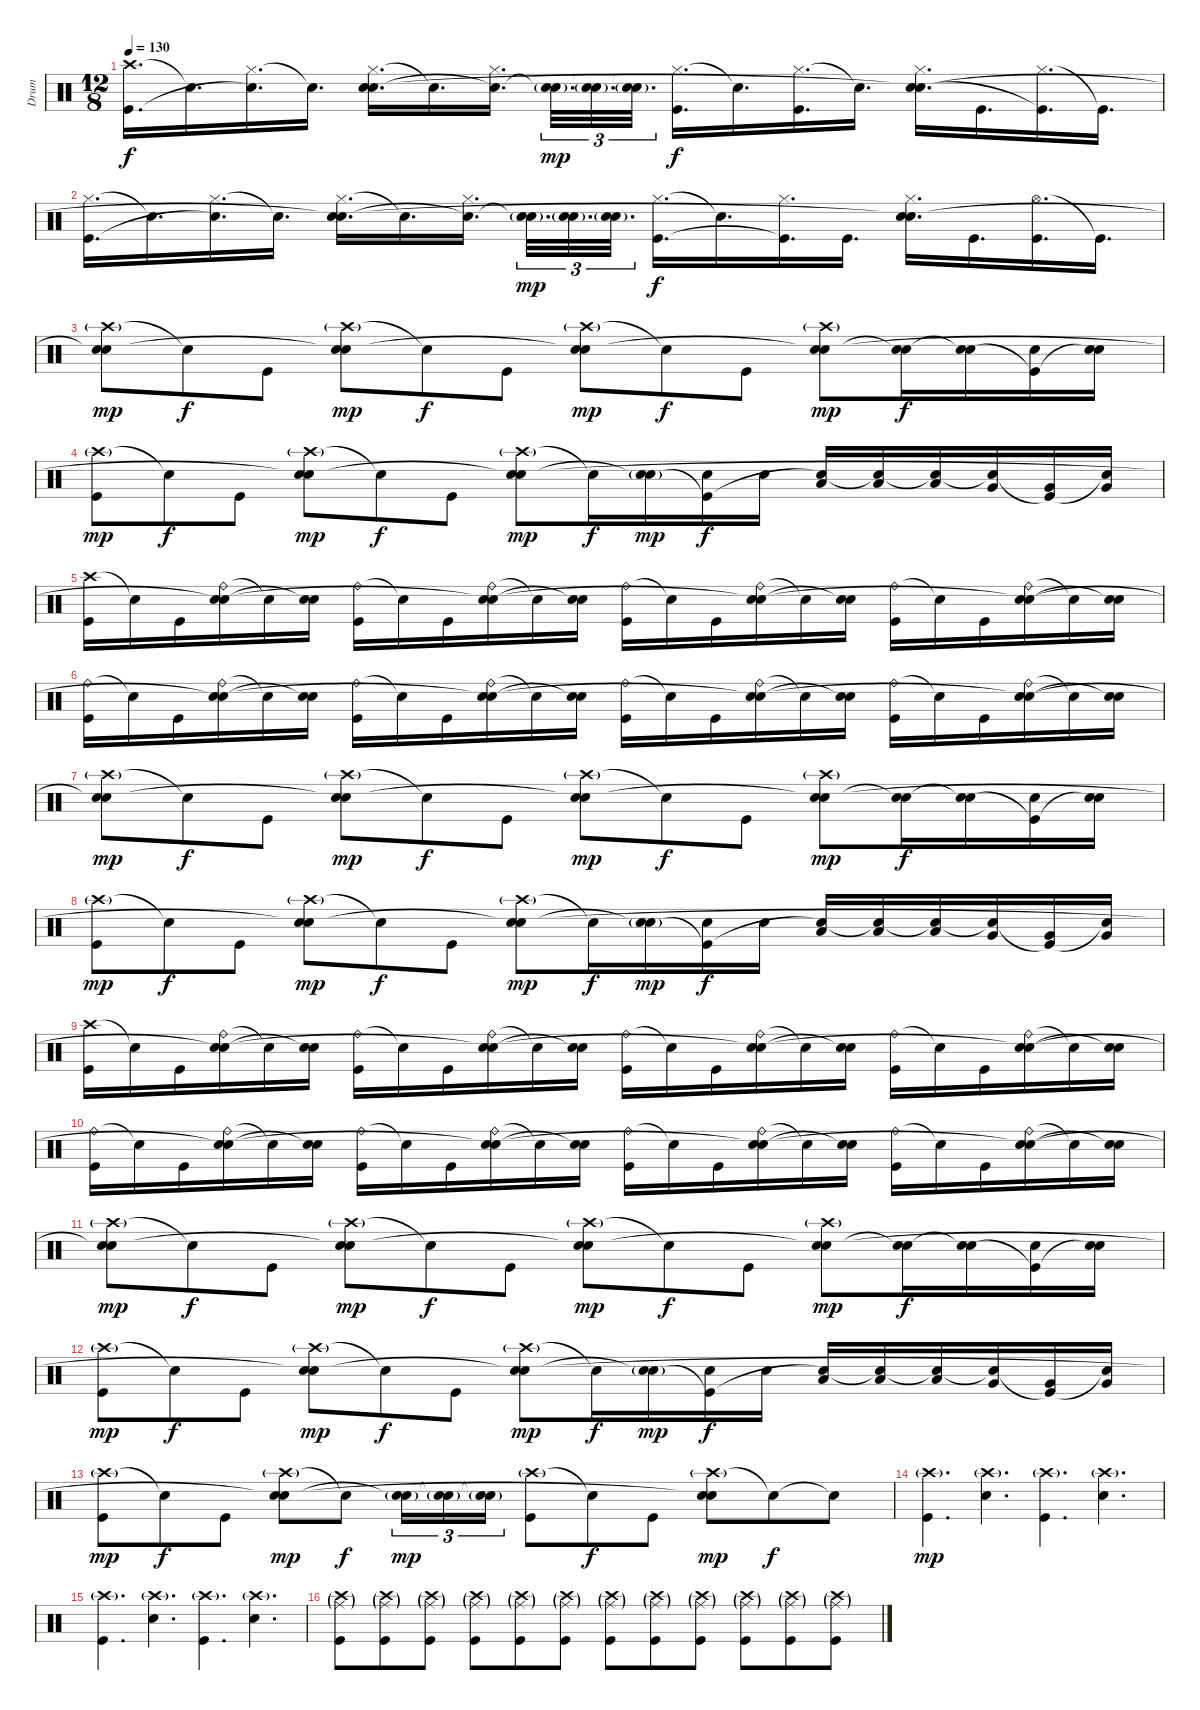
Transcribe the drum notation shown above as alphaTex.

\track ("Drum" "Drum") {instrument percussion}
\staff {score}
\articulation defaults
\ts (12 8)
\tempo 130
\clef neutral
\ks c
("Crash high (hit)" "Kick (hit)").16{d dy f} "Snare (hit)"{t}.16{d} ("Hi-Hat (closed)" "Snare (hit)"{t}).16{d} "Snare (hit)"{t}.16{d} ("Hi-Hat (closed)" "Electric Snare (hit)" "Snare (hit)"{t}).16{d} "Snare (hit)"{t}.16{d} ("Hi-Hat (closed)" "Snare (hit)"{t}).16{d beam splitsecondary} ("Electric Snare (hit)"{g} "Snare (hit)"{t}).32{d tu (3 2) dy mp} ("Electric Snare (hit)"{g} "Snare (hit)"{t}).32{d tu (3 2)} ("Electric Snare (hit)"{g} "Snare (hit)"{t}).32{d tu (3 2)} ("Hi-Hat (closed)" "Kick (hit)").16{d dy f} "Snare (hit)"{t}.16{d} ("Hi-Hat (closed)" "Kick (hit)").16{d} "Snare (hit)"{t}.16{d} ("Hi-Hat (closed)" "Electric Snare (hit)" "Snare (hit)"{t}).16{d} "Kick (hit)".16{d} ("Hi-Hat (closed)" "Kick (hit)"{t}).16{d} "Kick (hit)"{t}.16{d} |
("Hi-Hat (closed)" "Kick (hit)").16{d} "Snare (hit)"{t}.16{d} ("Hi-Hat (closed)" "Snare (hit)"{t}).16{d} "Snare (hit)"{t}.16{d} ("Hi-Hat (closed)" "Electric Snare (hit)" "Snare (hit)"{t}).16{d} "Snare (hit)"{t}.16{d} ("Hi-Hat (closed)" "Snare (hit)"{t}).16{d beam splitsecondary} ("Electric Snare (hit)"{g} "Snare (hit)"{t}).32{d tu (3 2) dy mp} ("Electric Snare (hit)"{g} "Snare (hit)"{t}).32{d tu (3 2)} ("Electric Snare (hit)"{g} "Snare (hit)"{t}).32{d tu (3 2)} ("Hi-Hat (closed)" "Kick (hit)").16{d dy f} "Snare (hit)"{t}.16{d} ("Hi-Hat (closed)" "Kick (hit)"{t}).16{d} "Kick (hit)".16{d} ("Hi-Hat (closed)" "Electric Snare (hit)" "Snare (hit)"{t}).16{d} "Kick (hit)".16{d} ("Hi-Hat (open)" "Kick (hit)").16{d} "Kick (hit)"{t}.16{d} |
("Crash high (hit)"{g} "Electric Snare (hit)" "Snare (hit)"{t}).8{dy mp} "Snare (hit)"{t}.8{dy f} "Kick (hit)".8 ("Crash high (hit)"{g} "Electric Snare (hit)" "Snare (hit)"{t}).8{dy mp} "Snare (hit)"{t}.8{dy f} "Kick (hit)".8 ("Crash high (hit)"{g} "Electric Snare (hit)" "Snare (hit)"{t}).8{dy mp} "Snare (hit)"{t}.8{dy f} "Kick (hit)".8 ("Crash high (hit)"{g} "Electric Snare (hit)" "Snare (hit)"{t}).8{dy mp} ("Electric Snare (hit)" "Snare (hit)"{t}).16{dy f} ("Electric Snare (hit)" "Snare (hit)"{t}).16 ("Electric Snare (hit)" "Kick (hit)"{t}).16 ("Electric Snare (hit)" "Snare (hit)"{t}).16 |
("Crash high (hit)"{g} "Kick (hit)").8{dy mp} "Snare (hit)"{t}.8{dy f} "Kick (hit)".8 ("Crash high (hit)"{g} "Electric Snare (hit)" "Snare (hit)"{t}).8{dy mp} "Snare (hit)"{t}.8{dy f} "Kick (hit)".8 ("Crash high (hit)"{g} "Electric Snare (hit)" "Snare (hit)"{t}).8{dy mp} "Snare (hit)"{t}.16{dy f} ("Electric Snare (hit)"{g} "Snare (hit)"{t}).16{dy mp} ("Electric Snare (hit)" "Kick (hit)"{t}).16{dy f} "Electric Snare (hit)".16 ("Low Tom (hit)" "Snare (hit)"{t}).16 ("Low Tom (hit)" "Snare (hit)"{t}).16 ("Low Tom (hit)" "Snare (hit)"{t}).16 ("Very Low Tom (hit)" "Snare (hit)"{t}).16 ("Very Low Tom (hit)" "Kick (hit)"{t}).16 ("Very Low Tom (hit)" "Snare (hit)"{t}).16 |
("Crash high (hit)" "Kick (hit)").16 "Snare (hit)"{t}.16 "Kick (hit)".16 ("Ride (bell)" "Electric Snare (hit)" "Snare (hit)"{t}).16 "Snare (hit)"{t}.16 ("Electric Snare (hit)" "Snare (hit)"{t}).16 ("Ride (bell)" "Kick (hit)").16 "Snare (hit)"{t}.16 "Kick (hit)".16 ("Ride (bell)" "Electric Snare (hit)" "Snare (hit)"{t}).16 "Snare (hit)"{t}.16 ("Electric Snare (hit)" "Snare (hit)"{t}).16 ("Ride (bell)" "Kick (hit)").16 "Snare (hit)"{t}.16 "Kick (hit)".16 ("Ride (bell)" "Electric Snare (hit)" "Snare (hit)"{t}).16 "Snare (hit)"{t}.16 ("Electric Snare (hit)" "Snare (hit)"{t}).16 ("Ride (bell)" "Kick (hit)").16 "Snare (hit)"{t}.16 "Kick (hit)".16 ("Ride (bell)" "Electric Snare (hit)" "Snare (hit)"{t}).16 "Snare (hit)"{t}.16 ("Electric Snare (hit)" "Snare (hit)"{t}).16 |
("Ride (bell)" "Kick (hit)").16 "Snare (hit)"{t}.16 "Kick (hit)".16 ("Ride (bell)" "Electric Snare (hit)" "Snare (hit)"{t}).16 "Snare (hit)"{t}.16 ("Electric Snare (hit)" "Snare (hit)"{t}).16 ("Ride (bell)" "Kick (hit)").16 "Snare (hit)"{t}.16 "Kick (hit)".16 ("Ride (bell)" "Electric Snare (hit)" "Snare (hit)"{t}).16 "Snare (hit)"{t}.16 ("Electric Snare (hit)" "Snare (hit)"{t}).16 ("Ride (bell)" "Kick (hit)").16 "Snare (hit)"{t}.16 "Kick (hit)".16 ("Ride (bell)" "Electric Snare (hit)" "Snare (hit)"{t}).16 "Snare (hit)"{t}.16 ("Electric Snare (hit)" "Snare (hit)"{t}).16 ("Ride (bell)" "Kick (hit)").16 "Snare (hit)"{t}.16 "Kick (hit)".16 ("Ride (bell)" "Electric Snare (hit)" "Snare (hit)"{t}).16 "Snare (hit)"{t}.16 ("Electric Snare (hit)" "Snare (hit)"{t}).16 |
("Crash high (hit)"{g} "Electric Snare (hit)" "Snare (hit)"{t}).8{dy mp} "Snare (hit)"{t}.8{dy f} "Kick (hit)".8 ("Crash high (hit)"{g} "Electric Snare (hit)" "Snare (hit)"{t}).8{dy mp} "Snare (hit)"{t}.8{dy f} "Kick (hit)".8 ("Crash high (hit)"{g} "Electric Snare (hit)" "Snare (hit)"{t}).8{dy mp} "Snare (hit)"{t}.8{dy f} "Kick (hit)".8 ("Crash high (hit)"{g} "Electric Snare (hit)" "Snare (hit)"{t}).8{dy mp} ("Electric Snare (hit)" "Snare (hit)"{t}).16{dy f} ("Electric Snare (hit)" "Snare (hit)"{t}).16 ("Electric Snare (hit)" "Kick (hit)"{t}).16 ("Electric Snare (hit)" "Snare (hit)"{t}).16 |
("Crash high (hit)"{g} "Kick (hit)").8{dy mp} "Snare (hit)"{t}.8{dy f} "Kick (hit)".8 ("Crash high (hit)"{g} "Electric Snare (hit)" "Snare (hit)"{t}).8{dy mp} "Snare (hit)"{t}.8{dy f} "Kick (hit)".8 ("Crash high (hit)"{g} "Electric Snare (hit)" "Snare (hit)"{t}).8{dy mp} "Snare (hit)"{t}.16{dy f} ("Electric Snare (hit)"{g} "Snare (hit)"{t}).16{dy mp} ("Electric Snare (hit)" "Kick (hit)"{t}).16{dy f} "Electric Snare (hit)".16 ("Low Tom (hit)" "Snare (hit)"{t}).16 ("Low Tom (hit)" "Snare (hit)"{t}).16 ("Low Tom (hit)" "Snare (hit)"{t}).16 ("Very Low Tom (hit)" "Snare (hit)"{t}).16 ("Very Low Tom (hit)" "Kick (hit)"{t}).16 ("Very Low Tom (hit)" "Snare (hit)"{t}).16 |
("Crash high (hit)" "Kick (hit)").16 "Snare (hit)"{t}.16 "Kick (hit)".16 ("Ride (bell)" "Electric Snare (hit)" "Snare (hit)"{t}).16 "Snare (hit)"{t}.16 ("Electric Snare (hit)" "Snare (hit)"{t}).16 ("Ride (bell)" "Kick (hit)").16 "Snare (hit)"{t}.16 "Kick (hit)".16 ("Ride (bell)" "Electric Snare (hit)" "Snare (hit)"{t}).16 "Snare (hit)"{t}.16 ("Electric Snare (hit)" "Snare (hit)"{t}).16 ("Ride (bell)" "Kick (hit)").16 "Snare (hit)"{t}.16 "Kick (hit)".16 ("Ride (bell)" "Electric Snare (hit)" "Snare (hit)"{t}).16 "Snare (hit)"{t}.16 ("Electric Snare (hit)" "Snare (hit)"{t}).16 ("Ride (bell)" "Kick (hit)").16 "Snare (hit)"{t}.16 "Kick (hit)".16 ("Ride (bell)" "Electric Snare (hit)" "Snare (hit)"{t}).16 "Snare (hit)"{t}.16 ("Electric Snare (hit)" "Snare (hit)"{t}).16 |
("Ride (bell)" "Kick (hit)").16 "Snare (hit)"{t}.16 "Kick (hit)".16 ("Ride (bell)" "Electric Snare (hit)" "Snare (hit)"{t}).16 "Snare (hit)"{t}.16 ("Electric Snare (hit)" "Snare (hit)"{t}).16 ("Ride (bell)" "Kick (hit)").16 "Snare (hit)"{t}.16 "Kick (hit)".16 ("Ride (bell)" "Electric Snare (hit)" "Snare (hit)"{t}).16 "Snare (hit)"{t}.16 ("Electric Snare (hit)" "Snare (hit)"{t}).16 ("Ride (bell)" "Kick (hit)").16 "Snare (hit)"{t}.16 "Kick (hit)".16 ("Ride (bell)" "Electric Snare (hit)" "Snare (hit)"{t}).16 "Snare (hit)"{t}.16 ("Electric Snare (hit)" "Snare (hit)"{t}).16 ("Ride (bell)" "Kick (hit)").16 "Snare (hit)"{t}.16 "Kick (hit)".16 ("Ride (bell)" "Electric Snare (hit)" "Snare (hit)"{t}).16 "Snare (hit)"{t}.16 ("Electric Snare (hit)" "Snare (hit)"{t}).16 |
("Crash high (hit)"{g} "Electric Snare (hit)" "Snare (hit)"{t}).8{dy mp} "Snare (hit)"{t}.8{dy f} "Kick (hit)".8 ("Crash high (hit)"{g} "Electric Snare (hit)" "Snare (hit)"{t}).8{dy mp} "Snare (hit)"{t}.8{dy f} "Kick (hit)".8 ("Crash high (hit)"{g} "Electric Snare (hit)" "Snare (hit)"{t}).8{dy mp} "Snare (hit)"{t}.8{dy f} "Kick (hit)".8 ("Crash high (hit)"{g} "Electric Snare (hit)" "Snare (hit)"{t}).8{dy mp} ("Electric Snare (hit)" "Snare (hit)"{t}).16{dy f} ("Electric Snare (hit)" "Snare (hit)"{t}).16 ("Electric Snare (hit)" "Kick (hit)"{t}).16 ("Electric Snare (hit)" "Snare (hit)"{t}).16 |
("Crash high (hit)"{g} "Kick (hit)").8{dy mp} "Snare (hit)"{t}.8{dy f} "Kick (hit)".8 ("Crash high (hit)"{g} "Electric Snare (hit)" "Snare (hit)"{t}).8{dy mp} "Snare (hit)"{t}.8{dy f} "Kick (hit)".8 ("Crash high (hit)"{g} "Electric Snare (hit)" "Snare (hit)"{t}).8{dy mp} "Snare (hit)"{t}.16{dy f} ("Electric Snare (hit)"{g} "Snare (hit)"{t}).16{dy mp} ("Electric Snare (hit)" "Kick (hit)"{t}).16{dy f} "Electric Snare (hit)".16 ("Low Tom (hit)" "Snare (hit)"{t}).16 ("Low Tom (hit)" "Snare (hit)"{t}).16 ("Low Tom (hit)" "Snare (hit)"{t}).16 ("Very Low Tom (hit)" "Snare (hit)"{t}).16 ("Very Low Tom (hit)" "Kick (hit)"{t}).16 ("Very Low Tom (hit)" "Snare (hit)"{t}).16 |
("Crash high (hit)"{g} "Kick (hit)").8{dy mp} "Snare (hit)"{t}.8{dy f} "Kick (hit)".8 ("Crash high (hit)"{g} "Electric Snare (hit)" "Snare (hit)"{t}).8{dy mp} "Snare (hit)"{t}.8{dy f} ("Electric Snare (hit)"{g} "Snare (hit)"{t}).16{tu (3 2) dy mp} ("Electric Snare (hit)"{g} "Snare (hit)"{t}).16{tu (3 2)} ("Electric Snare (hit)"{g} "Snare (hit)"{t}).16{tu (3 2)} ("Crash high (hit)"{g} "Kick (hit)").8 "Snare (hit)"{t}.8{dy f} "Kick (hit)".8 ("Crash high (hit)"{g} "Electric Snare (hit)" "Snare (hit)"{t}).8{dy mp} "Snare (hit)"{t}.8{dy f} "Snare (hit)"{t}.8 |
("Crash high (hit)"{g} "Kick (hit)").4{d dy mp} ("Crash high (hit)"{g} "Electric Snare (hit)").4{d} ("Crash high (hit)"{g} "Kick (hit)").4{d} ("Crash high (hit)"{g} "Electric Snare (hit)").4{d} |
("Crash high (hit)"{g} "Kick (hit)").4{d} ("Crash high (hit)"{g} "Electric Snare (hit)").4{d} ("Crash high (hit)"{g} "Kick (hit)").4{d} ("Crash high (hit)"{g} "Electric Snare (hit)").4{d} |
("Crash high (hit)"{g} "Ride (middle)"{g} "Kick (hit)").8 ("Crash high (hit)"{g} "Ride (middle)"{g} "Kick (hit)").8 ("Crash high (hit)"{g} "Ride (middle)"{g} "Kick (hit)").8 ("Crash high (hit)"{g} "Ride (middle)"{g} "Kick (hit)").8 ("Crash high (hit)"{g} "Ride (middle)"{g} "Kick (hit)").8 ("Crash high (hit)"{g} "Ride (middle)"{g} "Kick (hit)").8 ("Crash high (hit)"{g} "Ride (middle)"{g} "Kick (hit)").8 ("Crash high (hit)"{g} "Ride (middle)"{g} "Kick (hit)").8 ("Crash high (hit)"{g} "Ride (middle)"{g} "Kick (hit)").8 ("Crash high (hit)"{g} "Ride (middle)"{g} "Kick (hit)").8 ("Crash high (hit)"{g} "Ride (middle)"{g} "Kick (hit)").8 ("Crash high (hit)"{g} "Ride (middle)"{g} "Kick (hit)").8
